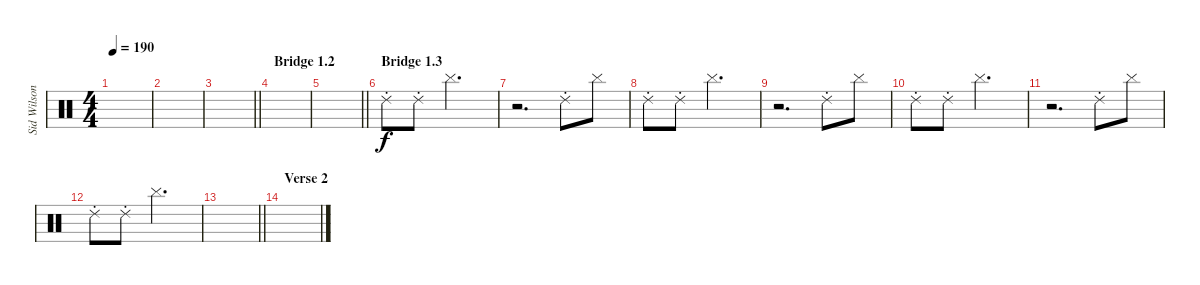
\track ("Sid Wilson" "Sid Wilson") {instrument percussion}
\staff {score}
\articulation defaults
\ts (4 4)
\tempo 190
\clef neutral
\ks c
|
|
\barLineRight lightlight
|
\section ("" "Bridge 1.2")
|
\barLineRight lightlight
|
\section ("" "Bridge 1.3")
"Ride (choke) 2".8 "Ride (choke) 2".8 "Cymbal (hit)".2{d} |
r.2{d} "Ride (choke) 2".8 "Cymbal (hit)".8 |
"Ride (choke) 2".8 "Ride (choke) 2".8 "Cymbal (hit)".2{d} |
r.2{d} "Ride (choke) 2".8 "Cymbal (hit)".8 |
"Ride (choke) 2".8 "Ride (choke) 2".8 "Cymbal (hit)".2{d} |
r.2{d} "Ride (choke) 2".8 "Cymbal (hit)".8 |
"Ride (choke) 2".8 "Ride (choke) 2".8 "Cymbal (hit)".2{d} |
\barLineRight lightlight
|
\section ("" "Verse 2")
